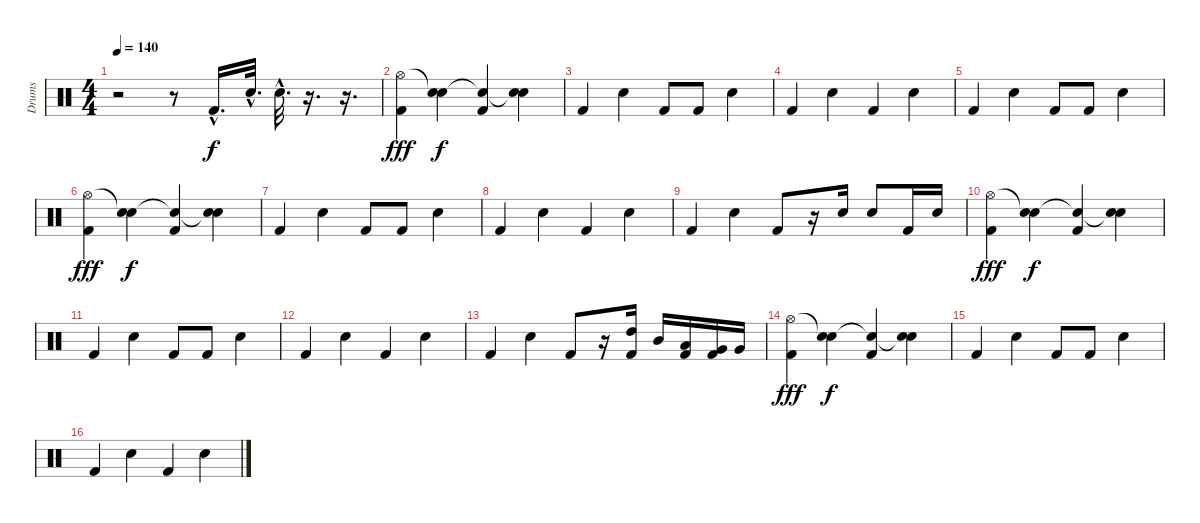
\track ("Drums" "Drums") {instrument percussion}
\staff {score}
\articulation defaults
\ts (4 4)
\tempo 140
\clef neutral
\ks c
r.2{dy f} r.8 "Kick (hit) 2"{hac}.16{d} "Snare (hit) 2"{hac}.32{d} "Snare (hit) 2"{hac}.32{d} r.16{d} r.16{d} |
("Hi-Hat (open)" "Kick (hit) 2").4{dy fff} ("Snare (hit)"{t} "Snare (hit) 2").4{dy f} ("Snare (hit)"{t} "Kick (hit) 2").4 ("Snare (hit)"{t} "Snare (hit) 2").4 |
"Kick (hit) 2".4 "Snare (hit) 2".4 "Kick (hit) 2".8 "Kick (hit) 2".8 "Snare (hit) 2".4 |
"Kick (hit) 2".4 "Snare (hit) 2".4 "Kick (hit) 2".4 "Snare (hit) 2".4 |
"Kick (hit) 2".4 "Snare (hit) 2".4 "Kick (hit) 2".8 "Kick (hit) 2".8 "Snare (hit) 2".4 |
("Hi-Hat (open)" "Kick (hit) 2").4{dy fff} ("Snare (hit)"{t} "Snare (hit) 2").4{dy f} ("Snare (hit)"{t} "Kick (hit) 2").4 ("Snare (hit)"{t} "Snare (hit) 2").4 |
"Kick (hit) 2".4 "Snare (hit) 2".4 "Kick (hit) 2".8 "Kick (hit) 2".8 "Snare (hit) 2".4 |
"Kick (hit) 2".4 "Snare (hit) 2".4 "Kick (hit) 2".4 "Snare (hit) 2".4 |
"Kick (hit) 2".4 "Snare (hit) 2".4 "Kick (hit) 2".8 r.16 "Snare (hit) 2".16 "Snare (hit) 2".8 "Kick (hit) 2".16 "Snare (hit) 2".16 |
("Hi-Hat (open)" "Kick (hit) 2").4{dy fff} ("Snare (hit)"{t} "Snare (hit) 2").4{dy f} ("Snare (hit)"{t} "Kick (hit) 2").4 ("Snare (hit)"{t} "Snare (hit) 2").4 |
"Kick (hit) 2".4 "Snare (hit) 2".4 "Kick (hit) 2".8 "Kick (hit) 2".8 "Snare (hit) 2".4 |
"Kick (hit) 2".4 "Snare (hit) 2".4 "Kick (hit) 2".4 "Snare (hit) 2".4 |
"Kick (hit) 2".4 "Snare (hit) 2".4 "Kick (hit) 2".8 r.16 ("High Tom (hit)" "Kick (hit) 2").16 "Mid Tom (hit)".16 ("Low Tom (hit)" "Kick (hit) 2").16 ("Very Low Tom (hit)" "Kick (hit) 2").16 "Very Low Tom (hit)".16 |
("Hi-Hat (open)" "Kick (hit) 2").4{dy fff} ("Snare (hit)"{t} "Snare (hit) 2").4{dy f} ("Snare (hit)"{t} "Kick (hit) 2").4 ("Snare (hit)"{t} "Snare (hit) 2").4 |
"Kick (hit) 2".4 "Snare (hit) 2".4 "Kick (hit) 2".8 "Kick (hit) 2".8 "Snare (hit) 2".4 |
"Kick (hit) 2".4 "Snare (hit) 2".4 "Kick (hit) 2".4 "Snare (hit) 2".4
